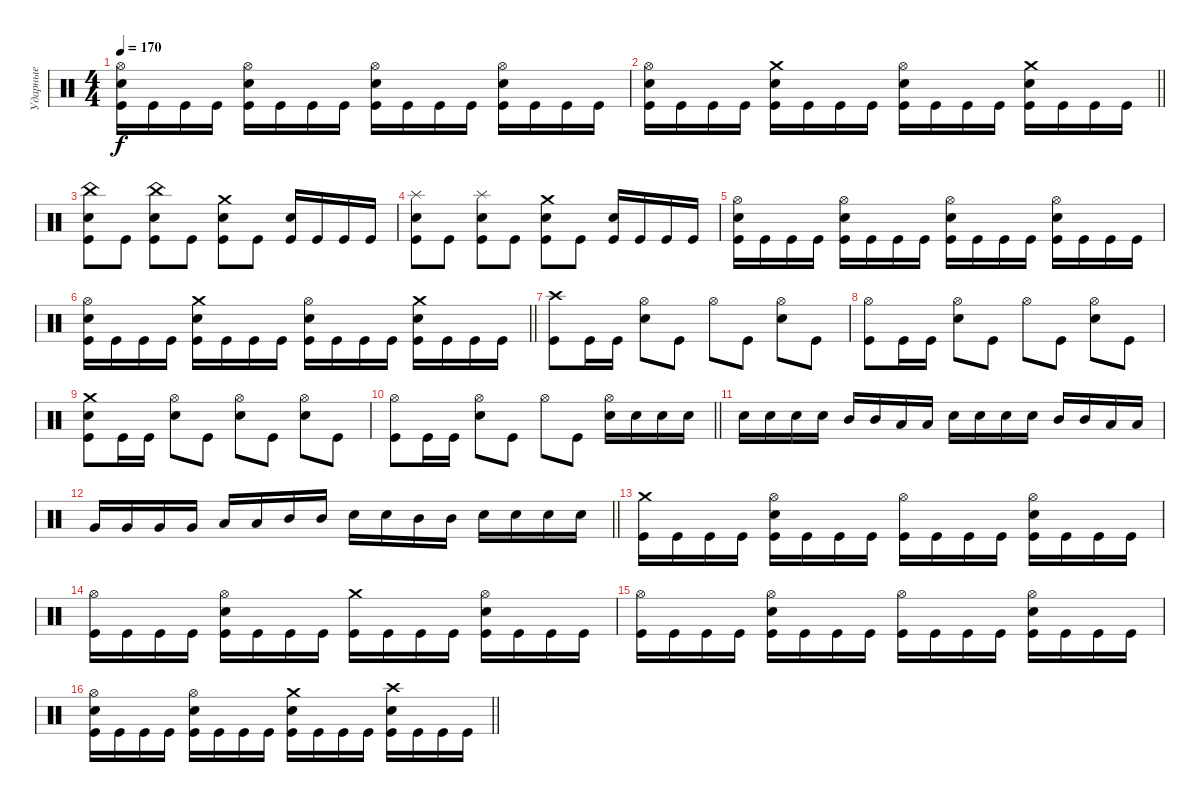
\track ("Ударные" "Ударные") {instrument percussion}
\staff {score}
\articulation defaults
\ts (4 4)
\tempo 170
\clef neutral
\ks c
("Hi-Hat (open)" "Electric Snare (hit)" "Kick (hit)").16{dy f} "Kick (hit)".16 "Kick (hit)".16 "Kick (hit)".16 ("Hi-Hat (open)" "Electric Snare (hit)" "Kick (hit)").16 "Kick (hit)".16 "Kick (hit)".16 "Kick (hit)".16 ("Hi-Hat (open)" "Electric Snare (hit)" "Kick (hit)").16 "Kick (hit)".16 "Kick (hit)".16 "Kick (hit)".16 ("Hi-Hat (open)" "Electric Snare (hit)" "Kick (hit)").16 "Kick (hit)".16 "Kick (hit)".16 "Kick (hit)".16 |
\barLineRight lightlight
("Hi-Hat (open)" "Electric Snare (hit)" "Kick (hit)").16 "Kick (hit)".16 "Kick (hit)".16 "Kick (hit)".16 ("Crash medium (hit)" "Electric Snare (hit)" "Kick (hit)").16 "Kick (hit)".16 "Kick (hit)".16 "Kick (hit)".16 ("Hi-Hat (open)" "Electric Snare (hit)" "Kick (hit)").16 "Kick (hit)".16 "Kick (hit)".16 "Kick (hit)".16 ("Crash medium (hit)" "Electric Snare (hit)" "Kick (hit)").16 "Kick (hit)".16 "Kick (hit)".16 "Kick (hit)".16 |
\section ("" "")
("China (hit)" "Electric Snare (hit)" "Kick (hit)").8 "Kick (hit)".8 ("China (hit)" "Electric Snare (hit)" "Kick (hit)").8 "Kick (hit)".8 ("Crash medium (hit)" "Electric Snare (hit)" "Kick (hit)").8 "Kick (hit)".8 ("Electric Snare (hit)" "Kick (hit)").16 "Kick (hit)".16 "Kick (hit)".16 "Kick (hit)".16 |
("Splash (hit)" "Electric Snare (hit)" "Kick (hit)").8 "Kick (hit)".8 ("Splash (hit)" "Electric Snare (hit)" "Kick (hit)").8 "Kick (hit)".8 ("Crash medium (hit)" "Electric Snare (hit)" "Kick (hit)").8 "Kick (hit)".8 ("Electric Snare (hit)" "Kick (hit)").16 "Kick (hit)".16 "Kick (hit)".16 "Kick (hit)".16 |
("Hi-Hat (open)" "Electric Snare (hit)" "Kick (hit)").16 "Kick (hit)".16 "Kick (hit)".16 "Kick (hit)".16 ("Hi-Hat (open)" "Electric Snare (hit)" "Kick (hit)").16 "Kick (hit)".16 "Kick (hit)".16 "Kick (hit)".16 ("Hi-Hat (open)" "Electric Snare (hit)" "Kick (hit)").16 "Kick (hit)".16 "Kick (hit)".16 "Kick (hit)".16 ("Hi-Hat (open)" "Electric Snare (hit)" "Kick (hit)").16 "Kick (hit)".16 "Kick (hit)".16 "Kick (hit)".16 |
\barLineRight lightlight
("Hi-Hat (open)" "Electric Snare (hit)" "Kick (hit)").16 "Kick (hit)".16 "Kick (hit)".16 "Kick (hit)".16 ("Crash medium (hit)" "Electric Snare (hit)" "Kick (hit)").16 "Kick (hit)".16 "Kick (hit)".16 "Kick (hit)".16 ("Hi-Hat (open)" "Electric Snare (hit)" "Kick (hit)").16 "Kick (hit)".16 "Kick (hit)".16 "Kick (hit)".16 ("Crash medium (hit)" "Electric Snare (hit)" "Kick (hit)").16 "Kick (hit)".16 "Kick (hit)".16 "Kick (hit)".16 |
\section ("" "")
("Crash high (hit)" "Kick (hit)").8 "Kick (hit)".16 "Kick (hit)".16 ("Hi-Hat (open)" "Electric Snare (hit)").8 "Kick (hit)".8 "Hi-Hat (open)".8 "Kick (hit)".8 ("Hi-Hat (open)" "Electric Snare (hit)").8 "Kick (hit)".8 |
("Hi-Hat (open)" "Kick (hit)").8 "Kick (hit)".16 "Kick (hit)".16 ("Hi-Hat (open)" "Electric Snare (hit)").8 "Kick (hit)".8 "Hi-Hat (open)".8 "Kick (hit)".8 ("Hi-Hat (open)" "Electric Snare (hit)").8 "Kick (hit)".8 |
("Crash medium (hit)" "Kick (hit)" "Electric Snare (hit)").8 "Kick (hit)".16 "Kick (hit)".16 ("Hi-Hat (open)" "Electric Snare (hit)").8 "Kick (hit)".8 ("Hi-Hat (open)" "Electric Snare (hit)").8 "Kick (hit)".8 ("Hi-Hat (open)" "Electric Snare (hit)").8 "Kick (hit)".8 |
\barLineRight lightlight
("Hi-Hat (open)" "Kick (hit)").8 "Kick (hit)".16 "Kick (hit)".16 ("Hi-Hat (open)" "Electric Snare (hit)").8 "Kick (hit)".8 "Hi-Hat (open)".8 "Kick (hit)".8 ("Hi-Hat (open)" "Electric Snare (hit)").16 "Electric Snare (hit)".16 "Electric Snare (hit)".16 "Electric Snare (hit)".16 |
"Electric Snare (hit)".16 "Electric Snare (hit)".16 "Electric Snare (hit)".16 "Electric Snare (hit)".16 "Mid Tom (hit)".16 "Mid Tom (hit)".16 "Low Tom (hit)".16 "Low Tom (hit)".16 "Electric Snare (hit)".16 "Electric Snare (hit)".16 "Electric Snare (hit)".16 "Electric Snare (hit)".16 "Mid Tom (hit)".16 "Mid Tom (hit)".16 "Low Tom (hit)".16 "Low Tom (hit)".16 |
\barLineRight lightlight "Very Low Tom (hit)".16 "Very Low Tom (hit)".16 "Very Low Tom (hit)".16 "Very Low Tom (hit)".16 "Low Tom (hit)".16 "Low Tom (hit)".16 "Mid Tom (hit)".16 "Mid Tom (hit)".16 "Electric Snare (hit)".16 "Electric Snare (hit)".16 "Mid Tom (hit)".16 "Mid Tom (hit)".16 "Electric Snare (hit)".16 "Electric Snare (hit)".16 "Electric Snare (hit)".16 "Electric Snare (hit)".16
|
\section ("" "")
("Crash medium (hit)" "Kick (hit)").16 "Kick (hit)".16 "Kick (hit)".16 "Kick (hit)".16 ("Hi-Hat (open)" "Electric Snare (hit)" "Kick (hit)").16 "Kick (hit)".16 "Kick (hit)".16 "Kick (hit)".16 ("Hi-Hat (open)" "Kick (hit)").16 "Kick (hit)".16 "Kick (hit)".16 "Kick (hit)".16 ("Hi-Hat (open)" "Electric Snare (hit)" "Kick (hit)").16 "Kick (hit)".16 "Kick (hit)".16 "Kick (hit)".16 |
("Hi-Hat (open)" "Kick (hit)").16 "Kick (hit)".16 "Kick (hit)".16 "Kick (hit)".16 ("Hi-Hat (open)" "Electric Snare (hit)" "Kick (hit)").16 "Kick (hit)".16 "Kick (hit)".16 "Kick (hit)".16 ("Crash medium (hit)" "Kick (hit)").16 "Kick (hit)".16 "Kick (hit)".16 "Kick (hit)".16 ("Hi-Hat (open)" "Electric Snare (hit)" "Kick (hit)").16 "Kick (hit)".16 "Kick (hit)".16 "Kick (hit)".16 |
("Hi-Hat (open)" "Kick (hit)").16 "Kick (hit)".16 "Kick (hit)".16 "Kick (hit)".16 ("Hi-Hat (open)" "Electric Snare (hit)" "Kick (hit)").16 "Kick (hit)".16 "Kick (hit)".16 "Kick (hit)".16 ("Hi-Hat (open)" "Kick (hit)").16 "Kick (hit)".16 "Kick (hit)".16 "Kick (hit)".16 ("Hi-Hat (open)" "Electric Snare (hit)" "Kick (hit)").16 "Kick (hit)".16 "Kick (hit)".16 "Kick (hit)".16 |
\barLineRight lightlight
("Hi-Hat (open)" "Electric Snare (hit)" "Kick (hit)").16 "Kick (hit)".16 "Kick (hit)".16 "Kick (hit)".16 ("Hi-Hat (open)" "Electric Snare (hit)" "Kick (hit)").16 "Kick (hit)".16 "Kick (hit)".16 "Kick (hit)".16 ("Crash medium (hit)" "Electric Snare (hit)" "Kick (hit)").16 "Kick (hit)".16 "Kick (hit)".16 "Kick (hit)".16 ("Crash high (hit)" "Electric Snare (hit)" "Kick (hit)").16 "Kick (hit)".16 "Kick (hit)".16 "Kick (hit)".16
